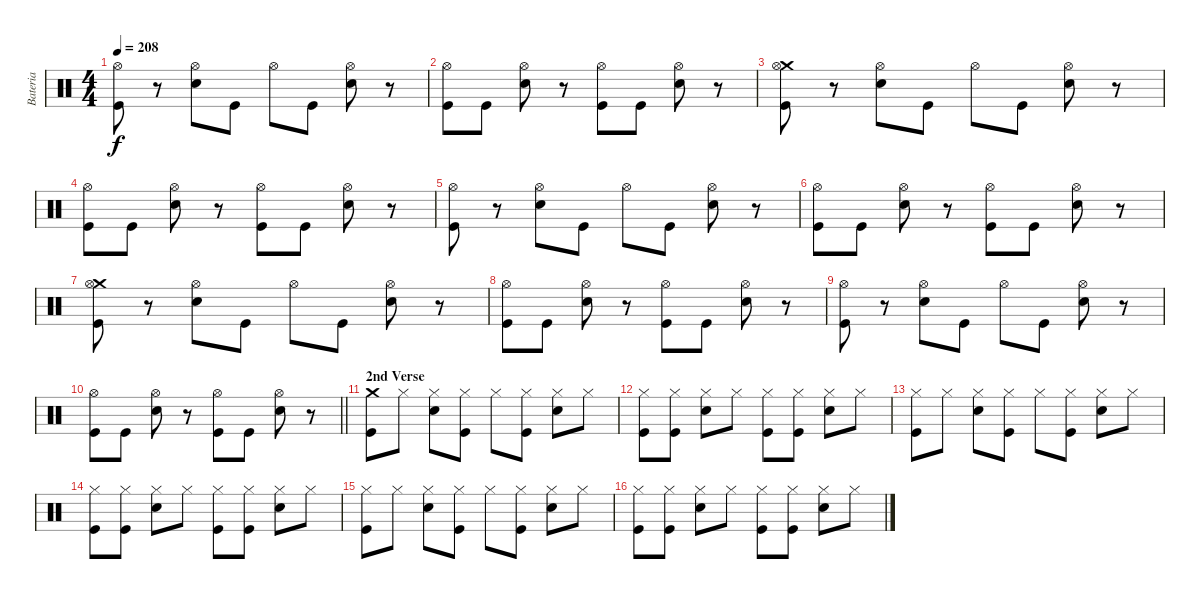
\track ("Bateria" "Bateria") {instrument percussion}
\staff {score}
\articulation defaults
\ts (4 4)
\tempo 208
\clef neutral
\ks c
("Hi-Hat (open)" "Kick (hit)").8{dy f} r.8 ("Hi-Hat (open)" "Electric Snare (hit)").8 "Kick (hit)".8 "Hi-Hat (open)".8 "Kick (hit)".8 ("Hi-Hat (open)" "Electric Snare (hit)").8 r.8 |
("Hi-Hat (open)" "Kick (hit)").8 "Kick (hit)".8 ("Hi-Hat (open)" "Electric Snare (hit)").8 r.8 ("Hi-Hat (open)" "Kick (hit)").8 "Kick (hit)".8 ("Hi-Hat (open)" "Electric Snare (hit)").8 r.8 |
("Crash medium (hit)" "Hi-Hat (open)" "Kick (hit)").8 r.8 ("Hi-Hat (open)" "Electric Snare (hit)").8 "Kick (hit)".8 "Hi-Hat (open)".8 "Kick (hit)".8 ("Hi-Hat (open)" "Electric Snare (hit)").8 r.8 |
("Hi-Hat (open)" "Kick (hit)").8 "Kick (hit)".8 ("Hi-Hat (open)" "Electric Snare (hit)").8 r.8 ("Hi-Hat (open)" "Kick (hit)").8 "Kick (hit)".8 ("Hi-Hat (open)" "Electric Snare (hit)").8 r.8 |
("Hi-Hat (open)" "Kick (hit)").8 r.8 ("Hi-Hat (open)" "Electric Snare (hit)").8 "Kick (hit)".8 "Hi-Hat (open)".8 "Kick (hit)".8 ("Hi-Hat (open)" "Electric Snare (hit)").8 r.8 |
("Hi-Hat (open)" "Kick (hit)").8 "Kick (hit)".8 ("Hi-Hat (open)" "Electric Snare (hit)").8 r.8 ("Hi-Hat (open)" "Kick (hit)").8 "Kick (hit)".8 ("Hi-Hat (open)" "Electric Snare (hit)").8 r.8 |
("Crash medium (hit)" "Hi-Hat (open)" "Kick (hit)").8 r.8 ("Hi-Hat (open)" "Electric Snare (hit)").8 "Kick (hit)".8 "Hi-Hat (open)".8 "Kick (hit)".8 ("Hi-Hat (open)" "Electric Snare (hit)").8 r.8 |
("Hi-Hat (open)" "Kick (hit)").8 "Kick (hit)".8 ("Hi-Hat (open)" "Electric Snare (hit)").8 r.8 ("Hi-Hat (open)" "Kick (hit)").8 "Kick (hit)".8 ("Hi-Hat (open)" "Electric Snare (hit)").8 r.8 |
("Hi-Hat (open)" "Kick (hit)").8 r.8 ("Hi-Hat (open)" "Electric Snare (hit)").8 "Kick (hit)".8 "Hi-Hat (open)".8 "Kick (hit)".8 ("Hi-Hat (open)" "Electric Snare (hit)").8 r.8 |
\barLineRight lightlight
("Hi-Hat (open)" "Kick (hit)").8 "Kick (hit)".8 ("Hi-Hat (open)" "Electric Snare (hit)").8 r.8 ("Hi-Hat (open)" "Kick (hit)").8 "Kick (hit)".8 ("Hi-Hat (open)" "Electric Snare (hit)").8 r.8 |
\section ("" "2nd Verse")
("Crash medium (hit)" "Kick (hit)").8 "Hi-Hat (closed)".8 ("Hi-Hat (closed)" "Electric Snare (hit)").8 ("Hi-Hat (closed)" "Kick (hit)").8 "Hi-Hat (closed)".8 ("Hi-Hat (closed)" "Kick (hit)").8 ("Hi-Hat (closed)" "Electric Snare (hit)").8 "Hi-Hat (closed)".8 |
("Hi-Hat (closed)" "Kick (hit)").8 ("Hi-Hat (closed)" "Kick (hit)").8 ("Hi-Hat (closed)" "Electric Snare (hit)").8 "Hi-Hat (closed)".8 ("Hi-Hat (closed)" "Kick (hit)").8 ("Hi-Hat (closed)" "Kick (hit)").8 ("Hi-Hat (closed)" "Electric Snare (hit)").8 "Hi-Hat (closed)".8 |
("Hi-Hat (closed)" "Kick (hit)").8 "Hi-Hat (closed)".8 ("Hi-Hat (closed)" "Electric Snare (hit)").8 ("Hi-Hat (closed)" "Kick (hit)").8 "Hi-Hat (closed)".8 ("Hi-Hat (closed)" "Kick (hit)").8 ("Hi-Hat (closed)" "Electric Snare (hit)").8 "Hi-Hat (closed)".8 |
("Hi-Hat (closed)" "Kick (hit)").8 ("Hi-Hat (closed)" "Kick (hit)").8 ("Hi-Hat (closed)" "Electric Snare (hit)").8 "Hi-Hat (closed)".8 ("Hi-Hat (closed)" "Kick (hit)").8 ("Hi-Hat (closed)" "Kick (hit)").8 ("Hi-Hat (closed)" "Electric Snare (hit)").8 "Hi-Hat (closed)".8 |
("Hi-Hat (closed)" "Kick (hit)").8 "Hi-Hat (closed)".8 ("Hi-Hat (closed)" "Electric Snare (hit)").8 ("Hi-Hat (closed)" "Kick (hit)").8 "Hi-Hat (closed)".8 ("Hi-Hat (closed)" "Kick (hit)").8 ("Hi-Hat (closed)" "Electric Snare (hit)").8 "Hi-Hat (closed)".8 |
("Hi-Hat (closed)" "Kick (hit)").8 ("Hi-Hat (closed)" "Kick (hit)").8 ("Hi-Hat (closed)" "Electric Snare (hit)").8 "Hi-Hat (closed)".8 ("Hi-Hat (closed)" "Kick (hit)").8 ("Hi-Hat (closed)" "Kick (hit)").8 ("Hi-Hat (closed)" "Electric Snare (hit)").8 "Hi-Hat (closed)".8
